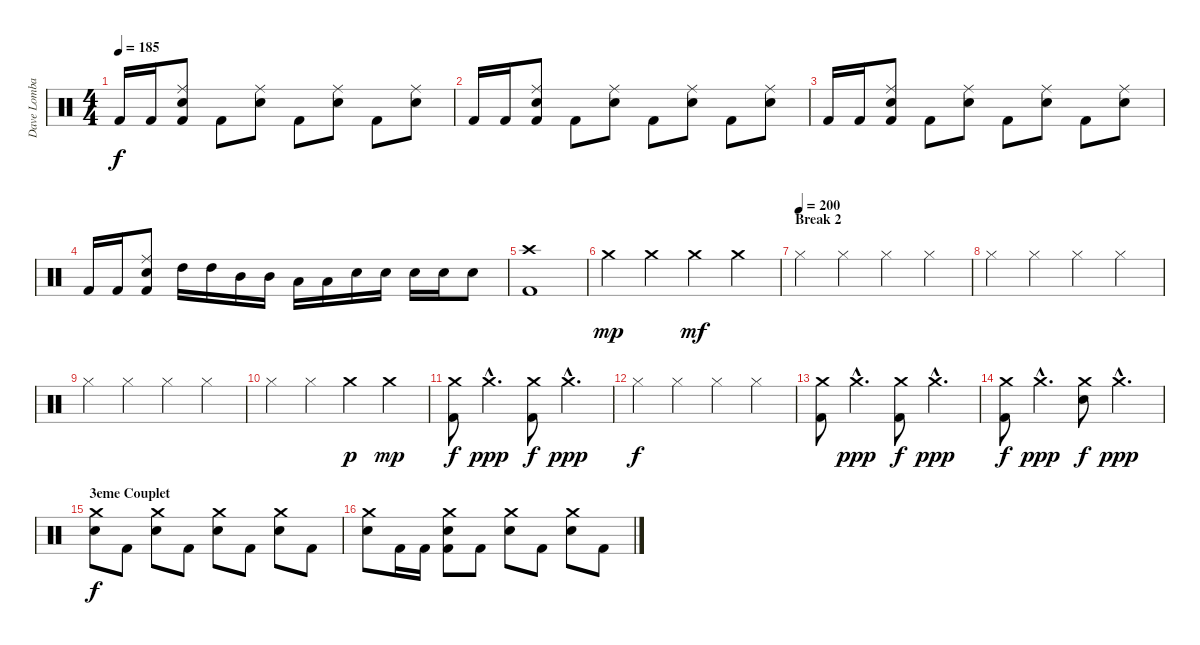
\track ("Dave Lombardo - Drums" "Dave Lomba") {instrument percussion}
\staff {score}
\articulation defaults
\ts (4 4)
\tempo 185
\clef neutral
\ks c "Kick (hit) 2".16{dy f} "Kick (hit) 2".16
("Ride (middle)" "Electric Snare (hit)" "Kick (hit) 2").8 "Kick (hit) 2".8 ("Ride (middle)" "Electric Snare (hit)").8 "Kick (hit) 2".8 ("Ride (middle)" "Electric Snare (hit)").8 "Kick (hit) 2".8 ("Ride (middle)" "Electric Snare (hit)").8 |
"Kick (hit) 2".16 "Kick (hit) 2".16 ("Ride (middle)" "Electric Snare (hit)" "Kick (hit) 2").8 "Kick (hit) 2".8 ("Ride (middle)" "Electric Snare (hit)").8 "Kick (hit) 2".8 ("Ride (middle)" "Electric Snare (hit)").8 "Kick (hit) 2".8 ("Ride (middle)" "Electric Snare (hit)").8 |
"Kick (hit) 2".16 "Kick (hit) 2".16 ("Ride (middle)" "Electric Snare (hit)" "Kick (hit) 2").8 "Kick (hit) 2".8 ("Ride (middle)" "Electric Snare (hit)").8 "Kick (hit) 2".8 ("Ride (middle)" "Electric Snare (hit)").8 "Kick (hit) 2".8 ("Ride (middle)" "Electric Snare (hit)").8 |
"Kick (hit) 2".16 "Kick (hit) 2".16 ("Ride (middle)" "Electric Snare (hit)" "Kick (hit) 2").8 "High Tom (hit)".16 "High Tom (hit)".16 "Mid Tom (hit)".16 "Mid Tom (hit)".16 "Low Tom (hit)".16 "Low Tom (hit)".16 "Electric Snare (hit)".16 "Electric Snare (hit)".16 "Electric Snare (hit)".16 "Electric Snare (hit)".16 "Electric Snare (hit)".8 |
("Crash high (hit)" "Kick (hit) 2").1 |
"Crash medium (hit)".4{dy mp} "Crash medium (hit)".4 "Crash medium (hit)".4{dy mf} "Crash medium (hit)".4 |
\section ("" "Break 2")
\tempo (200)
"Hi-Hat (closed)".4 "Hi-Hat (closed)".4 "Hi-Hat (closed)".4 "Hi-Hat (closed)".4 |
"Hi-Hat (closed)".4 "Hi-Hat (closed)".4 "Hi-Hat (closed)".4 "Hi-Hat (closed)".4 |
"Hi-Hat (closed)".4 "Hi-Hat (closed)".4 "Hi-Hat (closed)".4 "Hi-Hat (closed)".4 |
"Hi-Hat (closed)".4 "Hi-Hat (closed)".4 "Crash medium (hit)".4{dy p} "Crash medium (hit)".4{dy mp} |
("Crash medium (hit)" "Kick (hit) 2").8{dy f} "Crash medium (hit)"{hac}.4{d dy ppp} ("Crash medium (hit)" "Kick (hit) 2").8{dy f} "Crash medium (hit)"{hac}.4{d dy ppp} |
"Hi-Hat (closed)".4{dy f} "Hi-Hat (closed)".4 "Hi-Hat (closed)".4 "Hi-Hat (closed)".4 |
("Crash medium (hit)" "Kick (hit) 2").8 "Crash medium (hit)"{hac}.4{d dy ppp} ("Crash medium (hit)" "Kick (hit) 2").8{dy f} "Crash medium (hit)"{hac}.4{d dy ppp} |
("Crash medium (hit)" "Kick (hit) 2").8{dy f} "Crash medium (hit)"{hac}.4{d dy ppp} ("Crash medium (hit)" "Electric Snare (hit)").8{dy f} "Crash medium (hit)"{hac}.4{d dy ppp} |
\section ("" "3eme Couplet")
("Crash medium (hit)" "Electric Snare (hit)").8{dy f} "Kick (hit) 2".8 ("Crash medium (hit)" "Electric Snare (hit)").8 "Kick (hit) 2".8 ("Crash medium (hit)" "Electric Snare (hit)").8 "Kick (hit) 2".8 ("Crash medium (hit)" "Electric Snare (hit)").8 "Kick (hit) 2".8 |
("Crash medium (hit)" "Electric Snare (hit)").8 "Kick (hit) 2".16 "Kick (hit) 2".16 ("Crash medium (hit)" "Electric Snare (hit)" "Kick (hit) 2").8 "Kick (hit) 2".8 ("Crash medium (hit)" "Electric Snare (hit)").8 "Kick (hit) 2".8 ("Crash medium (hit)" "Electric Snare (hit)").8 "Kick (hit) 2".8
